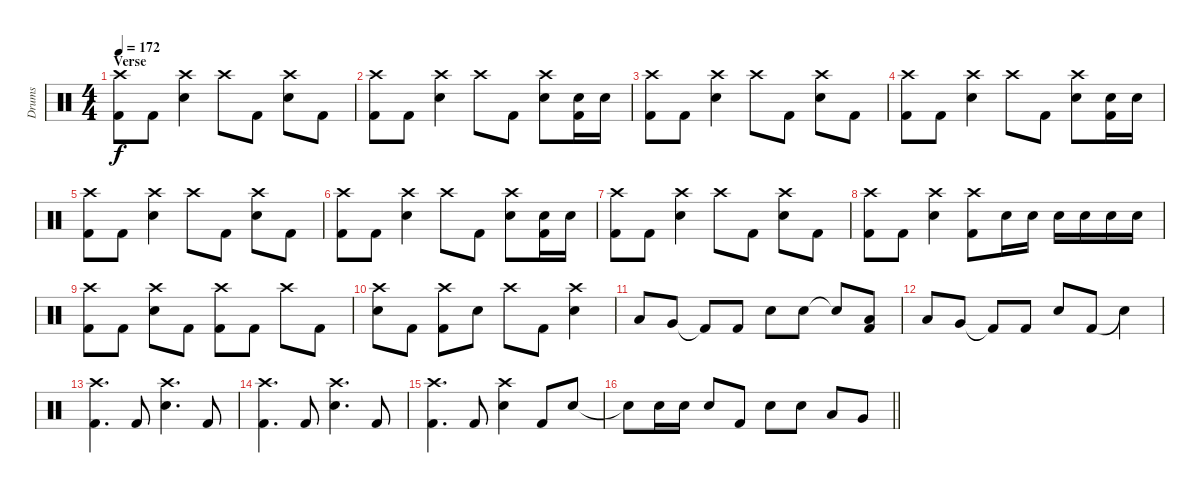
\track ("Drums" "Drums") {instrument percussion}
\staff {score}
\articulation defaults
\ts (4 4)
\section ("" "Verse")
\tempo 172
\clef neutral
\ks c
("Crash high (hit)" "Kick (hit) 2").8{dy f} "Kick (hit) 2".8 ("Crash high (hit)" "Electric Snare (hit)").4 "Crash high (hit)".8 "Kick (hit) 2".8 ("Crash high (hit)" "Electric Snare (hit)").8 "Kick (hit) 2".8 |
("Crash high (hit)" "Kick (hit) 2").8 "Kick (hit) 2".8 ("Crash high (hit)" "Electric Snare (hit)").4 "Crash high (hit)".8 "Kick (hit) 2".8 ("Crash high (hit)" "Electric Snare (hit)").8 ("Electric Snare (hit)" "Kick (hit) 2").16 "Electric Snare (hit)".16 |
("Crash high (hit)" "Kick (hit) 2").8 "Kick (hit) 2".8 ("Crash high (hit)" "Electric Snare (hit)").4 "Crash high (hit)".8 "Kick (hit) 2".8 ("Crash high (hit)" "Electric Snare (hit)").8 "Kick (hit) 2".8 |
("Crash high (hit)" "Kick (hit) 2").8 "Kick (hit) 2".8 ("Crash high (hit)" "Electric Snare (hit)").4 "Crash high (hit)".8 "Kick (hit) 2".8 ("Crash high (hit)" "Electric Snare (hit)").8 ("Electric Snare (hit)" "Kick (hit) 2").16 "Electric Snare (hit)".16 |
("Crash high (hit)" "Kick (hit) 2").8 "Kick (hit) 2".8 ("Crash high (hit)" "Electric Snare (hit)").4 "Crash high (hit)".8 "Kick (hit) 2".8 ("Crash high (hit)" "Electric Snare (hit)").8 "Kick (hit) 2".8 |
("Crash high (hit)" "Kick (hit) 2").8 "Kick (hit) 2".8 ("Crash high (hit)" "Electric Snare (hit)").4 "Crash high (hit)".8 "Kick (hit) 2".8 ("Crash high (hit)" "Electric Snare (hit)").8 ("Electric Snare (hit)" "Kick (hit) 2").16 "Electric Snare (hit)".16 |
("Crash high (hit)" "Kick (hit) 2").8 "Kick (hit) 2".8 ("Crash high (hit)" "Electric Snare (hit)").4 "Crash high (hit)".8 "Kick (hit) 2".8 ("Crash high (hit)" "Electric Snare (hit)").8 "Kick (hit) 2".8 |
("Crash high (hit)" "Kick (hit) 2").8 "Kick (hit) 2".8 ("Crash high (hit)" "Electric Snare (hit)").4 ("Crash high (hit)" "Kick (hit) 2").8 "Electric Snare (hit)".16 "Electric Snare (hit)".16 "Electric Snare (hit)".16 "Electric Snare (hit)".16 "Electric Snare (hit)".16 "Electric Snare (hit)".16 |
("Crash high (hit)" "Kick (hit) 2").8 "Kick (hit) 2".8 ("Crash high (hit)" "Electric Snare (hit)").8 "Kick (hit) 2".8 ("Crash high (hit)" "Kick (hit) 2").8 "Kick (hit) 2".8 "Crash high (hit)".8 "Kick (hit) 2".8 |
("Crash high (hit)" "Electric Snare (hit)").8 "Kick (hit) 2".8 ("Crash high (hit)" "Kick (hit) 2").8 "Electric Snare (hit)".8 "Crash high (hit)".8 "Kick (hit) 2".8 ("Crash high (hit)" "Electric Snare (hit)").4 |
"Low Tom (hit)".8 "Very Low Tom (hit)".8 "Kick (hit) 2"{t}.8 "Kick (hit) 2".8 "Electric Snare (hit)".8 "Electric Snare (hit)".8 "Snare (hit)"{t}.8 ("Low Floor Tom (hit)" "Kick (hit) 2").8 |
"Low Tom (hit)".8 "Very Low Tom (hit)".8 "Kick (hit) 2"{t}.8 "Kick (hit) 2".8 "Electric Snare (hit)".8 "Kick (hit) 2".8 "Snare (hit)"{t}.4 |
("Crash high (hit)" "Kick (hit) 2").4{d} "Kick (hit) 2".8 ("Crash high (hit)" "Electric Snare (hit)").4{d} "Kick (hit) 2".8 |
("Crash high (hit)" "Kick (hit) 2").4{d} "Kick (hit) 2".8 ("Crash high (hit)" "Electric Snare (hit)").4{d} "Kick (hit) 2".8 |
("Crash high (hit)" "Kick (hit) 2").4{d} "Kick (hit) 2".8 ("Crash high (hit)" "Electric Snare (hit)").4 "Kick (hit) 2".8 "Electric Snare (hit)".8 |
\barLineRight lightlight "Snare (hit)"{t}.8 "Electric Snare (hit)".16 "Electric Snare (hit)".16 "Electric Snare (hit)".8 "Kick (hit) 2".8 "Electric Snare (hit)".8 "Electric Snare (hit)".8 "Low Tom (hit)".8 "Very Low Tom (hit)".8
